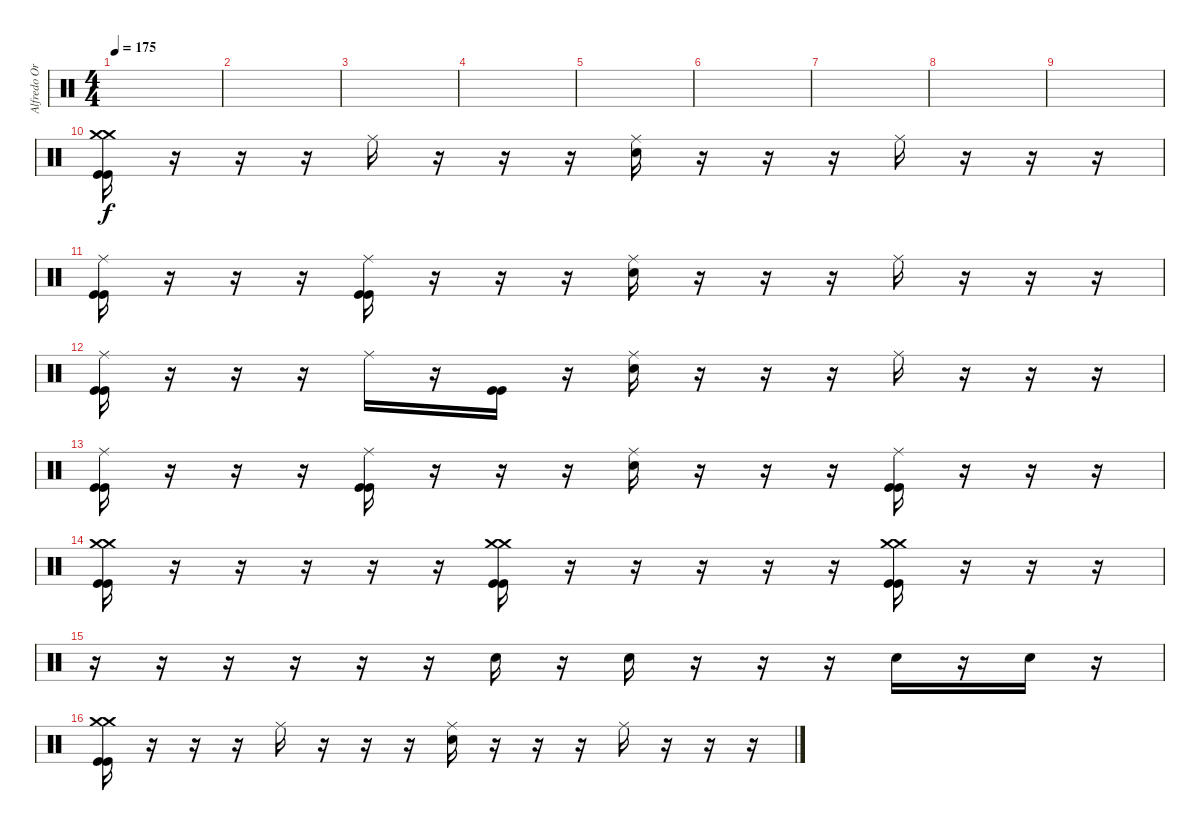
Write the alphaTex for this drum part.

\track ("Alfredo Ortiz" "Alfredo Or") {instrument percussion}
\staff {score}
\articulation defaults
\ts (4 4)
\tempo 175
\clef neutral
\ks c
|
|
|
|
|
|
|
|
|
("Crash medium (hit)" "Crash medium (hit)" "Kick (hit)" "Kick (hit)").16 r.16 r.16 r.16 "Ride (middle)".16 r.16 r.16 r.16 ("Ride (middle)" "Snare (hit) 2").16 r.16 r.16 r.16 "Ride (middle)".16 r.16 r.16 r.16 |
("Ride (middle)" "Kick (hit)" "Kick (hit)").16 r.16 r.16 r.16 ("Ride (middle)" "Kick (hit)" "Kick (hit)").16 r.16 r.16 r.16 ("Ride (middle)" "Snare (hit) 2").16 r.16 r.16 r.16 "Ride (middle)".16 r.16 r.16 r.16 |
("Ride (middle)" "Kick (hit)" "Kick (hit)").16 r.16 r.16 r.16 "Ride (middle)".16 r.16 ("Kick (hit)" "Kick (hit)").16 r.16 ("Ride (middle)" "Snare (hit) 2").16 r.16 r.16 r.16 "Ride (middle)".16 r.16 r.16 r.16 |
("Ride (middle)" "Kick (hit)" "Kick (hit)").16 r.16 r.16 r.16 ("Ride (middle)" "Kick (hit)" "Kick (hit)").16 r.16 r.16 r.16 ("Ride (middle)" "Snare (hit) 2").16 r.16 r.16 r.16 ("Ride (middle)" "Kick (hit)" "Kick (hit)").16 r.16 r.16 r.16 |
("Crash medium (hit)" "Crash medium (hit)" "Kick (hit)" "Kick (hit)").16 r.16 r.16 r.16 r.16 r.16 ("Crash medium (hit)" "Crash medium (hit)" "Kick (hit)" "Kick (hit)").16 r.16 r.16 r.16 r.16 r.16 ("Crash medium (hit)" "Crash medium (hit)" "Kick (hit)" "Kick (hit)").16 r.16 r.16 r.16 |
r.16 r.16 r.16 r.16 r.16 r.16 "Snare (hit) 2".16 r.16 "Snare (hit) 2".16 r.16 r.16 r.16 "Snare (hit) 2".16 r.16 "Snare (hit) 2".16 r.16 |
("Crash medium (hit)" "Crash medium (hit)" "Kick (hit)" "Kick (hit)").16 r.16 r.16 r.16 "Ride (middle)".16 r.16 r.16 r.16 ("Ride (middle)" "Snare (hit) 2").16 r.16 r.16 r.16 "Ride (middle)".16 r.16 r.16 r.16
